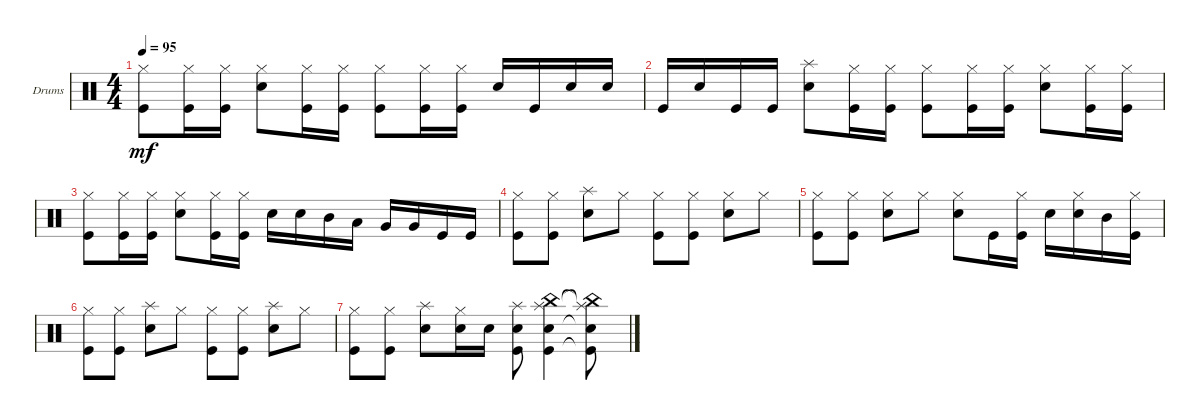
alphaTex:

\defaultSystemsLayout 4
\bracketExtendMode groupsimilarinstruments
\firstSystemTrackNameOrientation horizontal
\otherSystemsTrackNameOrientation horizontal
\track ("Drumkit" "Drums") {instrument percussion}
\staff {score}
\articulation defaults
\ts (4 4)
\tempo 95
\clef neutral
\ks c
("Kick (hit)" "Hi-Hat (closed)").8{dy mf} ("Kick (hit)" "Hi-Hat (closed)").16 ("Kick (hit)" "Hi-Hat (closed)").16 ("Hi-Hat (closed)" "Snare (hit) 2").8 ("Kick (hit)" "Hi-Hat (closed)").16 ("Kick (hit)" "Hi-Hat (closed)").16 ("Kick (hit)" "Hi-Hat (closed)").8 ("Kick (hit)" "Hi-Hat (closed)").16 ("Kick (hit)" "Hi-Hat (closed)").16 "Snare (hit) 2".16 "Kick (hit)".16 "Snare (hit) 2".16 "Snare (hit) 2".16 |
"Kick (hit)".16 "Snare (hit) 2".16 "Kick (hit)".16 "Kick (hit)".16 ("Snare (hit) 2" "Splash (hit)").8 ("Kick (hit)" "Hi-Hat (closed)").16 ("Kick (hit)" "Hi-Hat (closed)").16 ("Kick (hit)" "Hi-Hat (closed)").8 ("Kick (hit)" "Hi-Hat (closed)").16 ("Kick (hit)" "Hi-Hat (closed)").16 ("Snare (hit) 2" "Hi-Hat (closed)").8 ("Kick (hit)" "Hi-Hat (closed)").16 ("Kick (hit)" "Hi-Hat (closed)").16 |
("Kick (hit)" "Hi-Hat (closed)").8 ("Kick (hit)" "Hi-Hat (closed)").16 ("Kick (hit)" "Hi-Hat (closed)").16 ("Snare (hit) 2" "Hi-Hat (closed)").8 ("Kick (hit)" "Hi-Hat (closed)").16 ("Kick (hit)" "Hi-Hat (closed)").16 "Snare (hit) 2".16 "Snare (hit) 2".16 "Mid Tom (hit)".16 "Low Tom (hit)".16 "Very Low Tom (hit)".16 "Very Low Tom (hit)".16 "Kick (hit)".16 "Kick (hit)".16 |
("Kick (hit)" "Hi-Hat (closed)").8 ("Hi-Hat (closed)" "Kick (hit)").8 ("Snare (hit) 2" "Splash (hit)").8 "Hi-Hat (closed)".8 ("Hi-Hat (closed)" "Kick (hit)").8 ("Hi-Hat (closed)" "Kick (hit)").8 ("Hi-Hat (closed)" "Snare (hit) 2").8 "Hi-Hat (closed)".8 |
("Hi-Hat (closed)" "Kick (hit)").8 ("Hi-Hat (closed)" "Kick (hit)").8 ("Snare (hit) 2" "Hi-Hat (closed)").8 "Hi-Hat (closed)".8 ("Snare (hit) 2" "Hi-Hat (closed)").8 "Kick (hit)".16 ("Kick (hit)" "Hi-Hat (closed)").16 "Snare (hit) 2".16 ("Snare (hit) 2" "Hi-Hat (closed)").16 "Mid Tom (hit)".16 ("Kick (hit)" "Hi-Hat (closed)").16 |
("Kick (hit)" "Hi-Hat (closed)").8 ("Hi-Hat (closed)" "Kick (hit)").8 ("Snare (hit) 2" "Splash (hit)").8 "Hi-Hat (closed)".8 ("Hi-Hat (closed)" "Kick (hit)").8 ("Hi-Hat (closed)" "Kick (hit)").8 ("Snare (hit) 2" "Splash (hit)").8 "Hi-Hat (closed)".8 |
("Hi-Hat (closed)" "Kick (hit)").8 ("Hi-Hat (closed)" "Kick (hit)").8 ("Snare (hit) 2" "Splash (hit)").8 ("Hi-Hat (closed)" "Snare (hit) 2").16 "Snare (hit) 2".16 ("Snare (hit) 2" "Splash (hit)" "Kick (hit)").8 ("Snare (hit) 2" "Splash (hit)" "China (hit)" "Kick (hit)").4 ("Snare (hit) 2"{t} "China (hit)"{t} "Splash (hit)"{t} "Kick (hit)"{t}).8
